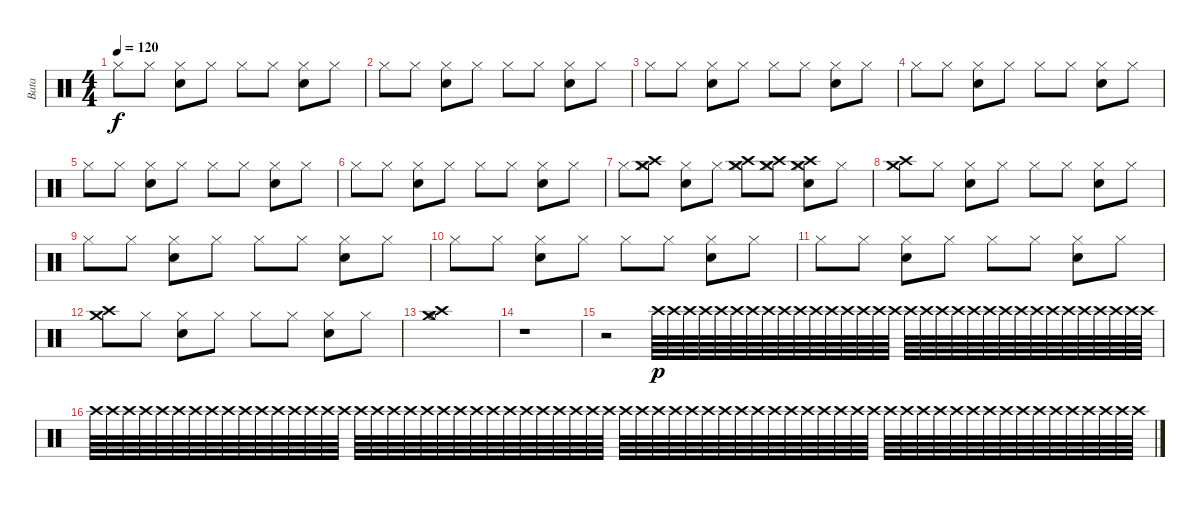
\track ("Bata" "Bata") {instrument percussion}
\staff {score}
\articulation defaults
\ts (4 4)
\tempo 120
\clef neutral
\ks c "Hi-Hat (closed)".8{dy f} "Hi-Hat (closed)".8
("Hi-Hat (closed)" "Electric Snare (hit)").8 "Hi-Hat (closed)".8 "Hi-Hat (closed)".8 "Hi-Hat (closed)".8 ("Hi-Hat (closed)" "Electric Snare (hit)").8 "Hi-Hat (closed)".8 |
"Hi-Hat (closed)".8 "Hi-Hat (closed)".8 ("Hi-Hat (closed)" "Electric Snare (hit)").8 "Hi-Hat (closed)".8 "Hi-Hat (closed)".8 "Hi-Hat (closed)".8 ("Hi-Hat (closed)" "Electric Snare (hit)").8 "Hi-Hat (closed)".8 |
"Hi-Hat (closed)".8 "Hi-Hat (closed)".8 ("Hi-Hat (closed)" "Electric Snare (hit)").8 "Hi-Hat (closed)".8 "Hi-Hat (closed)".8 "Hi-Hat (closed)".8 ("Hi-Hat (closed)" "Electric Snare (hit)").8 "Hi-Hat (closed)".8 |
"Hi-Hat (closed)".8 "Hi-Hat (closed)".8 ("Hi-Hat (closed)" "Electric Snare (hit)").8 "Hi-Hat (closed)".8 "Hi-Hat (closed)".8 "Hi-Hat (closed)".8 ("Hi-Hat (closed)" "Electric Snare (hit)").8 "Hi-Hat (closed)".8 |
"Hi-Hat (closed)".8 "Hi-Hat (closed)".8 ("Hi-Hat (closed)" "Electric Snare (hit)").8 "Hi-Hat (closed)".8 "Hi-Hat (closed)".8 "Hi-Hat (closed)".8 ("Hi-Hat (closed)" "Electric Snare (hit)").8 "Hi-Hat (closed)".8 |
"Hi-Hat (closed)".8 "Hi-Hat (closed)".8 ("Hi-Hat (closed)" "Electric Snare (hit)").8 "Hi-Hat (closed)".8 "Hi-Hat (closed)".8 "Hi-Hat (closed)".8 ("Hi-Hat (closed)" "Electric Snare (hit)").8 "Hi-Hat (closed)".8 |
"Hi-Hat (closed)".8 ("Hi-Hat (closed)" "Crash medium (hit)" "Crash high (hit)").8 ("Hi-Hat (closed)" "Electric Snare (hit)").8 "Hi-Hat (closed)".8 ("Hi-Hat (closed)" "Crash medium (hit)" "Crash high (hit)").8 ("Hi-Hat (closed)" "Crash medium (hit)" "Crash high (hit)").8 ("Hi-Hat (closed)" "Electric Snare (hit)" "Crash medium (hit)" "Crash high (hit)").8 "Hi-Hat (closed)".8 |
("Crash high (hit)" "Crash medium (hit)").8 "Hi-Hat (closed)".8 ("Hi-Hat (closed)" "Electric Snare (hit)").8 "Hi-Hat (closed)".8 "Hi-Hat (closed)".8 "Hi-Hat (closed)".8 ("Hi-Hat (closed)" "Electric Snare (hit)").8 "Hi-Hat (closed)".8 |
"Hi-Hat (closed)".8 "Hi-Hat (closed)".8 ("Hi-Hat (closed)" "Electric Snare (hit)").8 "Hi-Hat (closed)".8 "Hi-Hat (closed)".8 "Hi-Hat (closed)".8 ("Hi-Hat (closed)" "Electric Snare (hit)").8 "Hi-Hat (closed)".8 |
"Hi-Hat (closed)".8 "Hi-Hat (closed)".8 ("Hi-Hat (closed)" "Electric Snare (hit)").8 "Hi-Hat (closed)".8 "Hi-Hat (closed)".8 "Hi-Hat (closed)".8 ("Hi-Hat (closed)" "Electric Snare (hit)").8 "Hi-Hat (closed)".8 |
"Hi-Hat (closed)".8 "Hi-Hat (closed)".8 ("Hi-Hat (closed)" "Electric Snare (hit)").8 "Hi-Hat (closed)".8 "Hi-Hat (closed)".8 "Hi-Hat (closed)".8 ("Hi-Hat (closed)" "Electric Snare (hit)").8 "Hi-Hat (closed)".8 |
("Crash medium (hit)" "Crash high (hit)").8 "Hi-Hat (closed)".8 ("Hi-Hat (closed)" "Electric Snare (hit)").8 "Hi-Hat (closed)".8 "Hi-Hat (closed)".8 "Hi-Hat (closed)".8 ("Hi-Hat (closed)" "Electric Snare (hit)").8 "Hi-Hat (closed)".8 |
("Crash medium (hit)" "Hi-Hat (open)" "Crash high (hit)").1 |
r.1 |
r.2 "Crash high (hit)".64{dy p} "Crash high (hit)".64 "Crash high (hit)".64 "Crash high (hit)".64 "Crash high (hit)".64 "Crash high (hit)".64 "Crash high (hit)".64 "Crash high (hit)".64 "Crash high (hit)".64 "Crash high (hit)".64 "Crash high (hit)".64 "Crash high (hit)".64 "Crash high (hit)".64 "Crash high (hit)".64 "Crash high (hit)".64 "Crash high (hit)".64 "Crash high (hit)".64 "Crash high (hit)".64 "Crash high (hit)".64 "Crash high (hit)".64 "Crash high (hit)".64 "Crash high (hit)".64 "Crash high (hit)".64 "Crash high (hit)".64 "Crash high (hit)".64 "Crash high (hit)".64 "Crash high (hit)".64 "Crash high (hit)".64 "Crash high (hit)".64 "Crash high (hit)".64 "Crash high (hit)".64 "Crash high (hit)".64 |
"Crash high (hit)".64 "Crash high (hit)".64 "Crash high (hit)".64 "Crash high (hit)".64 "Crash high (hit)".64 "Crash high (hit)".64 "Crash high (hit)".64 "Crash high (hit)".64 "Crash high (hit)".64 "Crash high (hit)".64 "Crash high (hit)".64 "Crash high (hit)".64 "Crash high (hit)".64 "Crash high (hit)".64 "Crash high (hit)".64 "Crash high (hit)".64 "Crash high (hit)".64 "Crash high (hit)".64 "Crash high (hit)".64 "Crash high (hit)".64 "Crash high (hit)".64 "Crash high (hit)".64 "Crash high (hit)".64 "Crash high (hit)".64 "Crash high (hit)".64 "Crash high (hit)".64 "Crash high (hit)".64 "Crash high (hit)".64 "Crash high (hit)".64 "Crash high (hit)".64 "Crash high (hit)".64 "Crash high (hit)".64 "Crash high (hit)".64 "Crash high (hit)".64 "Crash high (hit)".64 "Crash high (hit)".64 "Crash high (hit)".64 "Crash high (hit)".64 "Crash high (hit)".64 "Crash high (hit)".64 "Crash high (hit)".64 "Crash high (hit)".64 "Crash high (hit)".64 "Crash high (hit)".64 "Crash high (hit)".64 "Crash high (hit)".64 "Crash high (hit)".64 "Crash high (hit)".64 "Crash high (hit)".64 "Crash high (hit)".64 "Crash high (hit)".64 "Crash high (hit)".64 "Crash high (hit)".64 "Crash high (hit)".64 "Crash high (hit)".64 "Crash high (hit)".64 "Crash high (hit)".64 "Crash high (hit)".64 "Crash high (hit)".64 "Crash high (hit)".64 "Crash high (hit)".64 "Crash high (hit)".64 "Crash high (hit)".64 "Crash high (hit)".64
